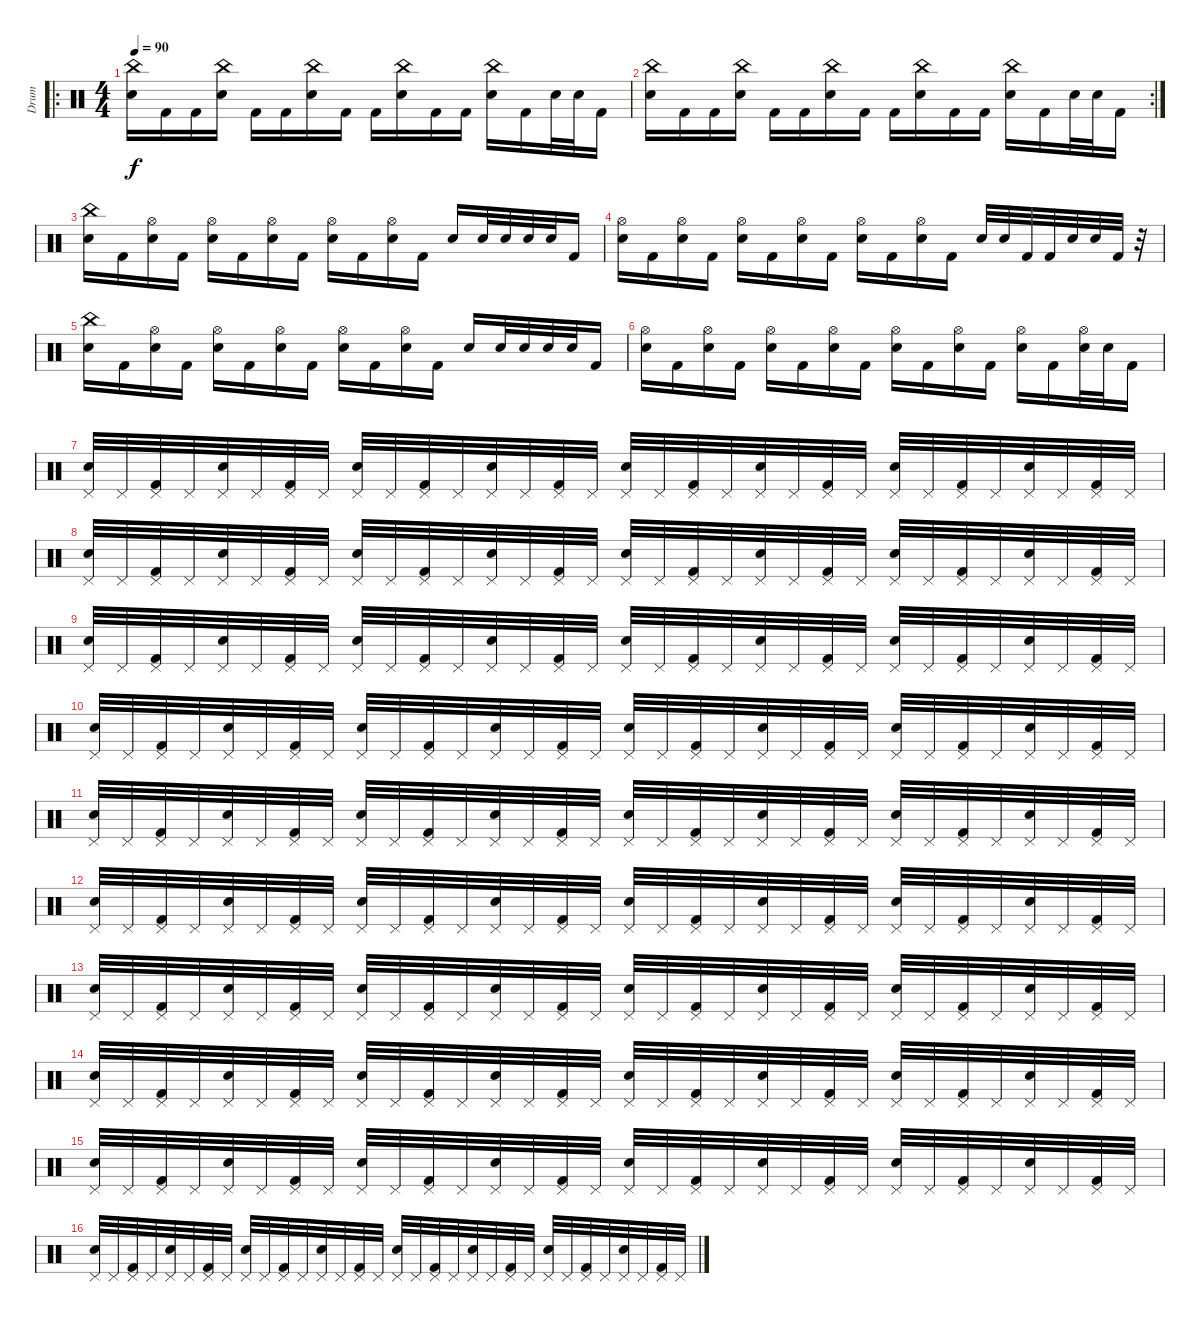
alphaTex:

\track ("Drum" "Drum") {instrument percussion}
\staff {score}
\articulation defaults
\ro
\ts (4 4)
\tempo 90
\clef neutral
\ks c
("China (hit)" "Electric Snare (hit)").16{dy f} "Kick (hit) 2".16 "Kick (hit) 2".16 ("China (hit)" "Electric Snare (hit)").16 "Kick (hit) 2".16 "Kick (hit) 2".16 ("China (hit)" "Electric Snare (hit)").16 "Kick (hit) 2".16 "Kick (hit) 2".16 ("China (hit)" "Electric Snare (hit)").16 "Kick (hit) 2".16 "Kick (hit) 2".16 ("China (hit)" "Electric Snare (hit)").16 "Kick (hit) 2".16 "Electric Snare (hit)".32 "Electric Snare (hit)".32 "Kick (hit) 2".16 |
\rc 2
("China (hit)" "Electric Snare (hit)").16 "Kick (hit) 2".16 "Kick (hit) 2".16 ("China (hit)" "Electric Snare (hit)").16 "Kick (hit) 2".16 "Kick (hit) 2".16 ("China (hit)" "Electric Snare (hit)").16 "Kick (hit) 2".16 "Kick (hit) 2".16 ("China (hit)" "Electric Snare (hit)").16 "Kick (hit) 2".16 "Kick (hit) 2".16 ("China (hit)" "Electric Snare (hit)").16 "Kick (hit) 2".16 "Electric Snare (hit)".32 "Electric Snare (hit)".32 "Kick (hit) 2".16 |
("China (hit)" "Electric Snare (hit)").16 "Kick (hit) 2".16 ("Hi-Hat (open)" "Electric Snare (hit)").16 "Kick (hit) 2".16 ("Hi-Hat (open)" "Electric Snare (hit)").16 "Kick (hit) 2".16 ("Hi-Hat (open)" "Electric Snare (hit)").16 "Kick (hit) 2".16 ("Hi-Hat (open)" "Electric Snare (hit)").16 "Kick (hit) 2".16 ("Hi-Hat (open)" "Electric Snare (hit)").16 "Kick (hit) 2".16 "Electric Snare (hit)".16 "Electric Snare (hit)".32 "Electric Snare (hit)".32 "Electric Snare (hit)".32 "Electric Snare (hit)".32 "Kick (hit) 2".16 |
("Hi-Hat (open)" "Electric Snare (hit)").16 "Kick (hit) 2".16 ("Hi-Hat (open)" "Electric Snare (hit)").16 "Kick (hit) 2".16 ("Hi-Hat (open)" "Electric Snare (hit)").16 "Kick (hit) 2".16 ("Hi-Hat (open)" "Electric Snare (hit)").16 "Kick (hit) 2".16 ("Hi-Hat (open)" "Electric Snare (hit)").16 "Kick (hit) 2".16 ("Hi-Hat (open)" "Electric Snare (hit)").16 "Kick (hit) 2".16 "Electric Snare (hit)".32 "Electric Snare (hit)".32 "Kick (hit) 2".32 "Kick (hit) 2".32 "Electric Snare (hit)".32 "Electric Snare (hit)".32 "Kick (hit) 2".32 r.32 |
("China (hit)" "Electric Snare (hit)").16 "Kick (hit) 2".16 ("Hi-Hat (open)" "Electric Snare (hit)").16 "Kick (hit) 2".16 ("Hi-Hat (open)" "Electric Snare (hit)").16 "Kick (hit) 2".16 ("Hi-Hat (open)" "Electric Snare (hit)").16 "Kick (hit) 2".16 ("Hi-Hat (open)" "Electric Snare (hit)").16 "Kick (hit) 2".16 ("Hi-Hat (open)" "Electric Snare (hit)").16 "Kick (hit) 2".16 "Electric Snare (hit)".16 "Electric Snare (hit)".32 "Electric Snare (hit)".32 "Electric Snare (hit)".32 "Electric Snare (hit)".32 "Kick (hit) 2".16 |
("Hi-Hat (open)" "Electric Snare (hit)").16 "Kick (hit) 2".16 ("Hi-Hat (open)" "Electric Snare (hit)").16 "Kick (hit) 2".16 ("Hi-Hat (open)" "Electric Snare (hit)").16 "Kick (hit) 2".16 ("Hi-Hat (open)" "Electric Snare (hit)").16 "Kick (hit) 2".16 ("Hi-Hat (open)" "Electric Snare (hit)").16 "Kick (hit) 2".16 ("Hi-Hat (open)" "Electric Snare (hit)").16 "Kick (hit) 2".16 ("Hi-Hat (open)" "Electric Snare (hit)").16 "Kick (hit) 2".16 ("Hi-Hat (open)" "Electric Snare (hit)").32 "Electric Snare (hit)".32 "Kick (hit) 2".16 |
("Pedal Hi-Hat (hit)" "Electric Snare (hit)").32 "Pedal Hi-Hat (hit)".32 ("Pedal Hi-Hat (hit)" "Kick (hit) 2").32 "Pedal Hi-Hat (hit)".32 ("Pedal Hi-Hat (hit)" "Electric Snare (hit)").32 "Pedal Hi-Hat (hit)".32 ("Pedal Hi-Hat (hit)" "Kick (hit) 2").32 "Pedal Hi-Hat (hit)".32 ("Pedal Hi-Hat (hit)" "Electric Snare (hit)").32 "Pedal Hi-Hat (hit)".32 ("Pedal Hi-Hat (hit)" "Kick (hit) 2").32 "Pedal Hi-Hat (hit)".32 ("Pedal Hi-Hat (hit)" "Electric Snare (hit)").32 "Pedal Hi-Hat (hit)".32 ("Pedal Hi-Hat (hit)" "Kick (hit) 2").32 "Pedal Hi-Hat (hit)".32 ("Pedal Hi-Hat (hit)" "Electric Snare (hit)").32 "Pedal Hi-Hat (hit)".32 ("Pedal Hi-Hat (hit)" "Kick (hit) 2").32 "Pedal Hi-Hat (hit)".32 ("Pedal Hi-Hat (hit)" "Electric Snare (hit)").32 "Pedal Hi-Hat (hit)".32 ("Pedal Hi-Hat (hit)" "Kick (hit) 2").32 "Pedal Hi-Hat (hit)".32 ("Pedal Hi-Hat (hit)" "Electric Snare (hit)").32 "Pedal Hi-Hat (hit)".32 ("Pedal Hi-Hat (hit)" "Kick (hit) 2").32 "Pedal Hi-Hat (hit)".32 ("Pedal Hi-Hat (hit)" "Electric Snare (hit)").32 "Pedal Hi-Hat (hit)".32 ("Pedal Hi-Hat (hit)" "Kick (hit) 2").32 "Pedal Hi-Hat (hit)".32 |
("Pedal Hi-Hat (hit)" "Electric Snare (hit)").32 "Pedal Hi-Hat (hit)".32 ("Pedal Hi-Hat (hit)" "Kick (hit) 2").32 "Pedal Hi-Hat (hit)".32 ("Pedal Hi-Hat (hit)" "Electric Snare (hit)").32 "Pedal Hi-Hat (hit)".32 ("Pedal Hi-Hat (hit)" "Kick (hit) 2").32 "Pedal Hi-Hat (hit)".32 ("Pedal Hi-Hat (hit)" "Electric Snare (hit)").32 "Pedal Hi-Hat (hit)".32 ("Pedal Hi-Hat (hit)" "Kick (hit) 2").32 "Pedal Hi-Hat (hit)".32 ("Pedal Hi-Hat (hit)" "Electric Snare (hit)").32 "Pedal Hi-Hat (hit)".32 ("Pedal Hi-Hat (hit)" "Kick (hit) 2").32 "Pedal Hi-Hat (hit)".32 ("Pedal Hi-Hat (hit)" "Electric Snare (hit)").32 "Pedal Hi-Hat (hit)".32 ("Pedal Hi-Hat (hit)" "Kick (hit) 2").32 "Pedal Hi-Hat (hit)".32 ("Pedal Hi-Hat (hit)" "Electric Snare (hit)").32 "Pedal Hi-Hat (hit)".32 ("Pedal Hi-Hat (hit)" "Kick (hit) 2").32 "Pedal Hi-Hat (hit)".32 ("Pedal Hi-Hat (hit)" "Electric Snare (hit)").32 "Pedal Hi-Hat (hit)".32 ("Pedal Hi-Hat (hit)" "Kick (hit) 2").32 "Pedal Hi-Hat (hit)".32 ("Pedal Hi-Hat (hit)" "Electric Snare (hit)").32 "Pedal Hi-Hat (hit)".32 ("Pedal Hi-Hat (hit)" "Kick (hit) 2").32 "Pedal Hi-Hat (hit)".32 |
("Pedal Hi-Hat (hit)" "Electric Snare (hit)").32 "Pedal Hi-Hat (hit)".32 ("Pedal Hi-Hat (hit)" "Kick (hit) 2").32 "Pedal Hi-Hat (hit)".32 ("Pedal Hi-Hat (hit)" "Electric Snare (hit)").32 "Pedal Hi-Hat (hit)".32 ("Pedal Hi-Hat (hit)" "Kick (hit) 2").32 "Pedal Hi-Hat (hit)".32 ("Pedal Hi-Hat (hit)" "Electric Snare (hit)").32 "Pedal Hi-Hat (hit)".32 ("Pedal Hi-Hat (hit)" "Kick (hit) 2").32 "Pedal Hi-Hat (hit)".32 ("Pedal Hi-Hat (hit)" "Electric Snare (hit)").32 "Pedal Hi-Hat (hit)".32 ("Pedal Hi-Hat (hit)" "Kick (hit) 2").32 "Pedal Hi-Hat (hit)".32 ("Pedal Hi-Hat (hit)" "Electric Snare (hit)").32 "Pedal Hi-Hat (hit)".32 ("Pedal Hi-Hat (hit)" "Kick (hit) 2").32 "Pedal Hi-Hat (hit)".32 ("Pedal Hi-Hat (hit)" "Electric Snare (hit)").32 "Pedal Hi-Hat (hit)".32 ("Pedal Hi-Hat (hit)" "Kick (hit) 2").32 "Pedal Hi-Hat (hit)".32 ("Pedal Hi-Hat (hit)" "Electric Snare (hit)").32 "Pedal Hi-Hat (hit)".32 ("Pedal Hi-Hat (hit)" "Kick (hit) 2").32 "Pedal Hi-Hat (hit)".32 ("Pedal Hi-Hat (hit)" "Electric Snare (hit)").32 "Pedal Hi-Hat (hit)".32 ("Pedal Hi-Hat (hit)" "Kick (hit) 2").32 "Pedal Hi-Hat (hit)".32 |
("Pedal Hi-Hat (hit)" "Electric Snare (hit)").32 "Pedal Hi-Hat (hit)".32 ("Pedal Hi-Hat (hit)" "Kick (hit) 2").32 "Pedal Hi-Hat (hit)".32 ("Pedal Hi-Hat (hit)" "Electric Snare (hit)").32 "Pedal Hi-Hat (hit)".32 ("Pedal Hi-Hat (hit)" "Kick (hit) 2").32 "Pedal Hi-Hat (hit)".32 ("Pedal Hi-Hat (hit)" "Electric Snare (hit)").32 "Pedal Hi-Hat (hit)".32 ("Pedal Hi-Hat (hit)" "Kick (hit) 2").32 "Pedal Hi-Hat (hit)".32 ("Pedal Hi-Hat (hit)" "Electric Snare (hit)").32 "Pedal Hi-Hat (hit)".32 ("Pedal Hi-Hat (hit)" "Kick (hit) 2").32 "Pedal Hi-Hat (hit)".32 ("Pedal Hi-Hat (hit)" "Electric Snare (hit)").32 "Pedal Hi-Hat (hit)".32 ("Pedal Hi-Hat (hit)" "Kick (hit) 2").32 "Pedal Hi-Hat (hit)".32 ("Pedal Hi-Hat (hit)" "Electric Snare (hit)").32 "Pedal Hi-Hat (hit)".32 ("Pedal Hi-Hat (hit)" "Kick (hit) 2").32 "Pedal Hi-Hat (hit)".32 ("Pedal Hi-Hat (hit)" "Electric Snare (hit)").32 "Pedal Hi-Hat (hit)".32 ("Pedal Hi-Hat (hit)" "Kick (hit) 2").32 "Pedal Hi-Hat (hit)".32 ("Pedal Hi-Hat (hit)" "Electric Snare (hit)").32 "Pedal Hi-Hat (hit)".32 ("Pedal Hi-Hat (hit)" "Kick (hit) 2").32 "Pedal Hi-Hat (hit)".32 |
("Pedal Hi-Hat (hit)" "Electric Snare (hit)").32 "Pedal Hi-Hat (hit)".32 ("Pedal Hi-Hat (hit)" "Kick (hit) 2").32 "Pedal Hi-Hat (hit)".32 ("Pedal Hi-Hat (hit)" "Electric Snare (hit)").32 "Pedal Hi-Hat (hit)".32 ("Pedal Hi-Hat (hit)" "Kick (hit) 2").32 "Pedal Hi-Hat (hit)".32 ("Pedal Hi-Hat (hit)" "Electric Snare (hit)").32 "Pedal Hi-Hat (hit)".32 ("Pedal Hi-Hat (hit)" "Kick (hit) 2").32 "Pedal Hi-Hat (hit)".32 ("Pedal Hi-Hat (hit)" "Electric Snare (hit)").32 "Pedal Hi-Hat (hit)".32 ("Pedal Hi-Hat (hit)" "Kick (hit) 2").32 "Pedal Hi-Hat (hit)".32 ("Pedal Hi-Hat (hit)" "Electric Snare (hit)").32 "Pedal Hi-Hat (hit)".32 ("Pedal Hi-Hat (hit)" "Kick (hit) 2").32 "Pedal Hi-Hat (hit)".32 ("Pedal Hi-Hat (hit)" "Electric Snare (hit)").32 "Pedal Hi-Hat (hit)".32 ("Pedal Hi-Hat (hit)" "Kick (hit) 2").32 "Pedal Hi-Hat (hit)".32 ("Pedal Hi-Hat (hit)" "Electric Snare (hit)").32 "Pedal Hi-Hat (hit)".32 ("Pedal Hi-Hat (hit)" "Kick (hit) 2").32 "Pedal Hi-Hat (hit)".32 ("Pedal Hi-Hat (hit)" "Electric Snare (hit)").32 "Pedal Hi-Hat (hit)".32 ("Pedal Hi-Hat (hit)" "Kick (hit) 2").32 "Pedal Hi-Hat (hit)".32 |
("Pedal Hi-Hat (hit)" "Electric Snare (hit)").32 "Pedal Hi-Hat (hit)".32 ("Pedal Hi-Hat (hit)" "Kick (hit) 2").32 "Pedal Hi-Hat (hit)".32 ("Pedal Hi-Hat (hit)" "Electric Snare (hit)").32 "Pedal Hi-Hat (hit)".32 ("Pedal Hi-Hat (hit)" "Kick (hit) 2").32 "Pedal Hi-Hat (hit)".32 ("Pedal Hi-Hat (hit)" "Electric Snare (hit)").32 "Pedal Hi-Hat (hit)".32 ("Pedal Hi-Hat (hit)" "Kick (hit) 2").32 "Pedal Hi-Hat (hit)".32 ("Pedal Hi-Hat (hit)" "Electric Snare (hit)").32 "Pedal Hi-Hat (hit)".32 ("Pedal Hi-Hat (hit)" "Kick (hit) 2").32 "Pedal Hi-Hat (hit)".32 ("Pedal Hi-Hat (hit)" "Electric Snare (hit)").32 "Pedal Hi-Hat (hit)".32 ("Pedal Hi-Hat (hit)" "Kick (hit) 2").32 "Pedal Hi-Hat (hit)".32 ("Pedal Hi-Hat (hit)" "Electric Snare (hit)").32 "Pedal Hi-Hat (hit)".32 ("Pedal Hi-Hat (hit)" "Kick (hit) 2").32 "Pedal Hi-Hat (hit)".32 ("Pedal Hi-Hat (hit)" "Electric Snare (hit)").32 "Pedal Hi-Hat (hit)".32 ("Pedal Hi-Hat (hit)" "Kick (hit) 2").32 "Pedal Hi-Hat (hit)".32 ("Pedal Hi-Hat (hit)" "Electric Snare (hit)").32 "Pedal Hi-Hat (hit)".32 ("Pedal Hi-Hat (hit)" "Kick (hit) 2").32 "Pedal Hi-Hat (hit)".32 |
("Pedal Hi-Hat (hit)" "Electric Snare (hit)").32 "Pedal Hi-Hat (hit)".32 ("Pedal Hi-Hat (hit)" "Kick (hit) 2").32 "Pedal Hi-Hat (hit)".32 ("Pedal Hi-Hat (hit)" "Electric Snare (hit)").32 "Pedal Hi-Hat (hit)".32 ("Pedal Hi-Hat (hit)" "Kick (hit) 2").32 "Pedal Hi-Hat (hit)".32 ("Pedal Hi-Hat (hit)" "Electric Snare (hit)").32 "Pedal Hi-Hat (hit)".32 ("Pedal Hi-Hat (hit)" "Kick (hit) 2").32 "Pedal Hi-Hat (hit)".32 ("Pedal Hi-Hat (hit)" "Electric Snare (hit)").32 "Pedal Hi-Hat (hit)".32 ("Pedal Hi-Hat (hit)" "Kick (hit) 2").32 "Pedal Hi-Hat (hit)".32 ("Pedal Hi-Hat (hit)" "Electric Snare (hit)").32 "Pedal Hi-Hat (hit)".32 ("Pedal Hi-Hat (hit)" "Kick (hit) 2").32 "Pedal Hi-Hat (hit)".32 ("Pedal Hi-Hat (hit)" "Electric Snare (hit)").32 "Pedal Hi-Hat (hit)".32 ("Pedal Hi-Hat (hit)" "Kick (hit) 2").32 "Pedal Hi-Hat (hit)".32 ("Pedal Hi-Hat (hit)" "Electric Snare (hit)").32 "Pedal Hi-Hat (hit)".32 ("Pedal Hi-Hat (hit)" "Kick (hit) 2").32 "Pedal Hi-Hat (hit)".32 ("Pedal Hi-Hat (hit)" "Electric Snare (hit)").32 "Pedal Hi-Hat (hit)".32 ("Pedal Hi-Hat (hit)" "Kick (hit) 2").32 "Pedal Hi-Hat (hit)".32 |
("Pedal Hi-Hat (hit)" "Electric Snare (hit)").32 "Pedal Hi-Hat (hit)".32 ("Pedal Hi-Hat (hit)" "Kick (hit) 2").32 "Pedal Hi-Hat (hit)".32 ("Pedal Hi-Hat (hit)" "Electric Snare (hit)").32 "Pedal Hi-Hat (hit)".32 ("Pedal Hi-Hat (hit)" "Kick (hit) 2").32 "Pedal Hi-Hat (hit)".32 ("Pedal Hi-Hat (hit)" "Electric Snare (hit)").32 "Pedal Hi-Hat (hit)".32 ("Pedal Hi-Hat (hit)" "Kick (hit) 2").32 "Pedal Hi-Hat (hit)".32 ("Pedal Hi-Hat (hit)" "Electric Snare (hit)").32 "Pedal Hi-Hat (hit)".32 ("Pedal Hi-Hat (hit)" "Kick (hit) 2").32 "Pedal Hi-Hat (hit)".32 ("Pedal Hi-Hat (hit)" "Electric Snare (hit)").32 "Pedal Hi-Hat (hit)".32 ("Pedal Hi-Hat (hit)" "Kick (hit) 2").32 "Pedal Hi-Hat (hit)".32 ("Pedal Hi-Hat (hit)" "Electric Snare (hit)").32 "Pedal Hi-Hat (hit)".32 ("Pedal Hi-Hat (hit)" "Kick (hit) 2").32 "Pedal Hi-Hat (hit)".32 ("Pedal Hi-Hat (hit)" "Electric Snare (hit)").32 "Pedal Hi-Hat (hit)".32 ("Pedal Hi-Hat (hit)" "Kick (hit) 2").32 "Pedal Hi-Hat (hit)".32 ("Pedal Hi-Hat (hit)" "Electric Snare (hit)").32 "Pedal Hi-Hat (hit)".32 ("Pedal Hi-Hat (hit)" "Kick (hit) 2").32 "Pedal Hi-Hat (hit)".32 |
("Pedal Hi-Hat (hit)" "Electric Snare (hit)").32 "Pedal Hi-Hat (hit)".32 ("Pedal Hi-Hat (hit)" "Kick (hit) 2").32 "Pedal Hi-Hat (hit)".32 ("Pedal Hi-Hat (hit)" "Electric Snare (hit)").32 "Pedal Hi-Hat (hit)".32 ("Pedal Hi-Hat (hit)" "Kick (hit) 2").32 "Pedal Hi-Hat (hit)".32 ("Pedal Hi-Hat (hit)" "Electric Snare (hit)").32 "Pedal Hi-Hat (hit)".32 ("Pedal Hi-Hat (hit)" "Kick (hit) 2").32 "Pedal Hi-Hat (hit)".32 ("Pedal Hi-Hat (hit)" "Electric Snare (hit)").32 "Pedal Hi-Hat (hit)".32 ("Pedal Hi-Hat (hit)" "Kick (hit) 2").32 "Pedal Hi-Hat (hit)".32 ("Pedal Hi-Hat (hit)" "Electric Snare (hit)").32 "Pedal Hi-Hat (hit)".32 ("Pedal Hi-Hat (hit)" "Kick (hit) 2").32 "Pedal Hi-Hat (hit)".32 ("Pedal Hi-Hat (hit)" "Electric Snare (hit)").32 "Pedal Hi-Hat (hit)".32 ("Pedal Hi-Hat (hit)" "Kick (hit) 2").32 "Pedal Hi-Hat (hit)".32 ("Pedal Hi-Hat (hit)" "Electric Snare (hit)").32 "Pedal Hi-Hat (hit)".32 ("Pedal Hi-Hat (hit)" "Kick (hit) 2").32 "Pedal Hi-Hat (hit)".32 ("Pedal Hi-Hat (hit)" "Electric Snare (hit)").32 "Pedal Hi-Hat (hit)".32 ("Pedal Hi-Hat (hit)" "Kick (hit) 2").32 "Pedal Hi-Hat (hit)".32 |
("Pedal Hi-Hat (hit)" "Electric Snare (hit)").32 "Pedal Hi-Hat (hit)".32 ("Pedal Hi-Hat (hit)" "Kick (hit) 2").32 "Pedal Hi-Hat (hit)".32 ("Pedal Hi-Hat (hit)" "Electric Snare (hit)").32 "Pedal Hi-Hat (hit)".32 ("Pedal Hi-Hat (hit)" "Kick (hit) 2").32 "Pedal Hi-Hat (hit)".32 ("Pedal Hi-Hat (hit)" "Electric Snare (hit)").32 "Pedal Hi-Hat (hit)".32 ("Pedal Hi-Hat (hit)" "Kick (hit) 2").32 "Pedal Hi-Hat (hit)".32 ("Pedal Hi-Hat (hit)" "Electric Snare (hit)").32 "Pedal Hi-Hat (hit)".32 ("Pedal Hi-Hat (hit)" "Kick (hit) 2").32 "Pedal Hi-Hat (hit)".32 ("Pedal Hi-Hat (hit)" "Electric Snare (hit)").32 "Pedal Hi-Hat (hit)".32 ("Pedal Hi-Hat (hit)" "Kick (hit) 2").32 "Pedal Hi-Hat (hit)".32 ("Pedal Hi-Hat (hit)" "Electric Snare (hit)").32 "Pedal Hi-Hat (hit)".32 ("Pedal Hi-Hat (hit)" "Kick (hit) 2").32 "Pedal Hi-Hat (hit)".32 ("Pedal Hi-Hat (hit)" "Electric Snare (hit)").32 "Pedal Hi-Hat (hit)".32 ("Pedal Hi-Hat (hit)" "Kick (hit) 2").32 "Pedal Hi-Hat (hit)".32 ("Pedal Hi-Hat (hit)" "Electric Snare (hit)").32 "Pedal Hi-Hat (hit)".32 ("Pedal Hi-Hat (hit)" "Kick (hit) 2").32 "Pedal Hi-Hat (hit)".32
